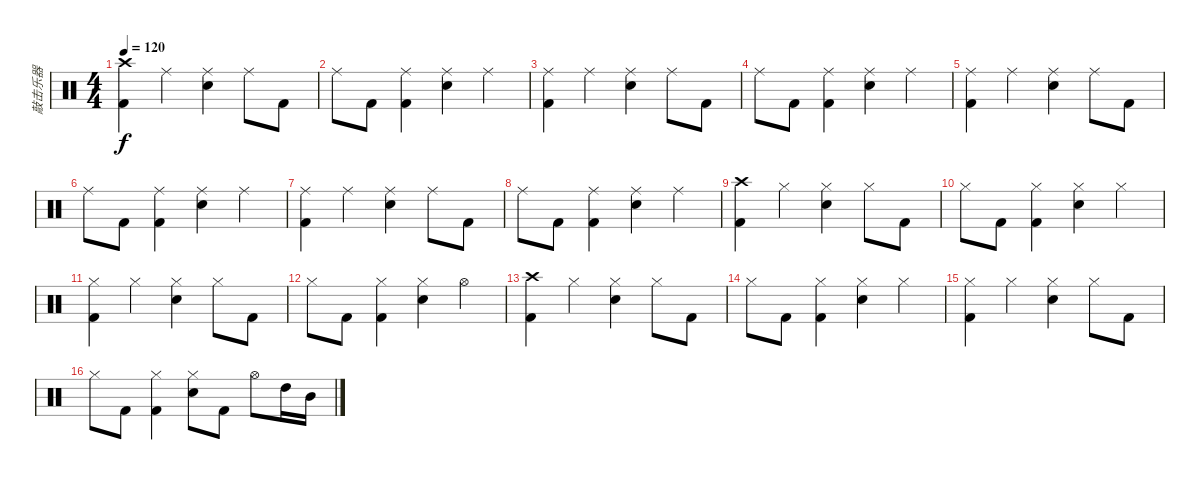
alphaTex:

\track ("敲击乐器" "敲击乐器") {instrument percussion}
\staff {score}
\articulation defaults
\ts (4 4)
\tempo 120
\clef neutral
\ks c
("Kick (hit) 2" "Crash high (hit)").4{dy f} "Ride (middle)".4 ("Snare (hit) 2" "Ride (middle)").4 "Ride (middle)".8 "Kick (hit) 2".8 |
"Ride (middle)".8 "Kick (hit) 2".8 ("Kick (hit) 2" "Ride (middle)").4 ("Snare (hit) 2" "Ride (middle)").4 "Ride (middle)".4 |
("Kick (hit) 2" "Ride (middle)").4 "Ride (middle)".4 ("Snare (hit) 2" "Ride (middle)").4 "Ride (middle)".8 "Kick (hit) 2".8 |
"Ride (middle)".8 "Kick (hit) 2".8 ("Kick (hit) 2" "Ride (middle)").4 ("Snare (hit) 2" "Ride (middle)").4 "Ride (middle)".4 |
("Kick (hit) 2" "Ride (middle)").4 "Ride (middle)".4 ("Snare (hit) 2" "Ride (middle)").4 "Ride (middle)".8 "Kick (hit) 2".8 |
"Ride (middle)".8 "Kick (hit) 2".8 ("Kick (hit) 2" "Ride (middle)").4 ("Snare (hit) 2" "Ride (middle)").4 "Ride (middle)".4 |
("Kick (hit) 2" "Ride (middle)").4 "Ride (middle)".4 ("Snare (hit) 2" "Ride (middle)").4 "Ride (middle)".8 "Kick (hit) 2".8 |
"Ride (middle)".8 "Kick (hit) 2".8 ("Kick (hit) 2" "Ride (middle)").4 ("Snare (hit) 2" "Ride (middle)").4 "Ride (middle)".4 |
("Kick (hit) 2" "Crash high (hit)").4 "Hi-Hat (closed)".4 ("Snare (hit) 2" "Hi-Hat (closed)").4 "Hi-Hat (closed)".8 "Kick (hit) 2".8 |
"Hi-Hat (closed)".8 "Kick (hit) 2".8 ("Kick (hit) 2" "Hi-Hat (closed)").4 ("Snare (hit) 2" "Hi-Hat (closed)").4 "Hi-Hat (closed)".4 |
("Kick (hit) 2" "Hi-Hat (closed)").4 "Hi-Hat (closed)".4 ("Snare (hit) 2" "Hi-Hat (closed)").4 "Hi-Hat (closed)".8 "Kick (hit) 2".8 |
"Hi-Hat (closed)".8 "Kick (hit) 2".8 ("Kick (hit) 2" "Hi-Hat (closed)").4 ("Snare (hit) 2" "Hi-Hat (closed)").4 "Hi-Hat (open)".4 |
("Kick (hit) 2" "Crash high (hit)").4 "Hi-Hat (closed)".4 ("Snare (hit) 2" "Hi-Hat (closed)").4 "Hi-Hat (closed)".8 "Kick (hit) 2".8 |
"Hi-Hat (closed)".8 "Kick (hit) 2".8 ("Kick (hit) 2" "Hi-Hat (closed)").4 ("Snare (hit) 2" "Hi-Hat (closed)").4 "Hi-Hat (closed)".4 |
("Kick (hit) 2" "Hi-Hat (closed)").4 "Hi-Hat (closed)".4 ("Snare (hit) 2" "Hi-Hat (closed)").4 "Hi-Hat (closed)".8 "Kick (hit) 2".8 |
"Hi-Hat (closed)".8 "Kick (hit) 2".8 ("Kick (hit) 2" "Hi-Hat (closed)").4 ("Snare (hit) 2" "Hi-Hat (closed)").8 "Kick (hit) 2".8 "Hi-Hat (open)".8 "High Tom (hit)".16 "Mid Tom (hit)".16
